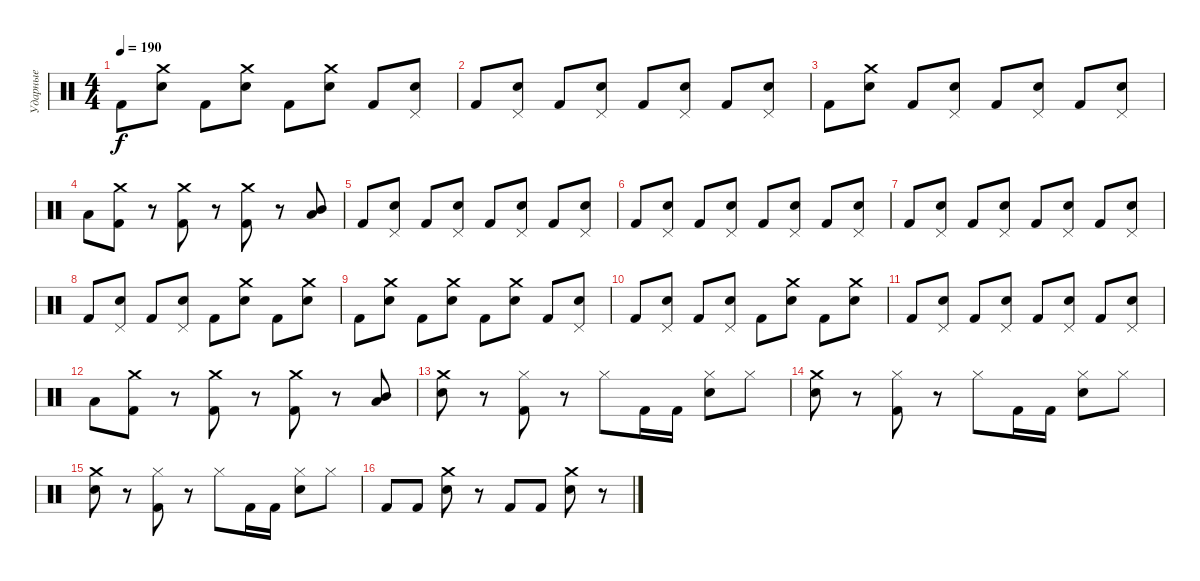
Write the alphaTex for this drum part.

\track ("Ударные" "Ударные") {instrument percussion}
\staff {score}
\articulation defaults
\ts (4 4)
\tempo 190
\clef neutral
\ks c "Kick (hit) 2".8{dy f}
("Snare (hit) 2" "Crash medium (hit)").8 "Kick (hit) 2".8 ("Snare (hit) 2" "Crash medium (hit)").8 "Kick (hit) 2".8 ("Snare (hit) 2" "Crash medium (hit)").8 "Kick (hit) 2".8 ("Snare (hit) 2" "Pedal Hi-Hat (hit)").8 |
"Kick (hit) 2".8 ("Snare (hit) 2" "Pedal Hi-Hat (hit)").8 "Kick (hit) 2".8 ("Snare (hit) 2" "Pedal Hi-Hat (hit)").8 "Kick (hit) 2".8 ("Snare (hit) 2" "Pedal Hi-Hat (hit)").8 "Kick (hit) 2".8 ("Snare (hit) 2" "Pedal Hi-Hat (hit)").8 |
"Kick (hit) 2".8 ("Snare (hit) 2" "Crash medium (hit)").8 "Kick (hit) 2".8 ("Snare (hit) 2" "Pedal Hi-Hat (hit)").8 "Kick (hit) 2".8 ("Snare (hit) 2" "Pedal Hi-Hat (hit)").8 "Kick (hit) 2".8 ("Snare (hit) 2" "Pedal Hi-Hat (hit)").8 |
"Low Tom (hit)".8 ("Kick (hit) 2" "Crash medium (hit)").8 r.8 ("Kick (hit) 2" "Crash medium (hit)").8 r.8 ("Kick (hit) 2" "Crash medium (hit)").8 r.8 ("Low Tom (hit)" "Mid Tom (hit)").8{bd 120} |
"Kick (hit) 2".8 ("Snare (hit) 2" "Pedal Hi-Hat (hit)").8 "Kick (hit) 2".8 ("Snare (hit) 2" "Pedal Hi-Hat (hit)").8 "Kick (hit) 2".8 ("Snare (hit) 2" "Pedal Hi-Hat (hit)").8 "Kick (hit) 2".8 ("Snare (hit) 2" "Pedal Hi-Hat (hit)").8 |
"Kick (hit) 2".8 ("Snare (hit) 2" "Pedal Hi-Hat (hit)").8 "Kick (hit) 2".8 ("Snare (hit) 2" "Pedal Hi-Hat (hit)").8 "Kick (hit) 2".8 ("Snare (hit) 2" "Pedal Hi-Hat (hit)").8 "Kick (hit) 2".8 ("Snare (hit) 2" "Pedal Hi-Hat (hit)").8 |
"Kick (hit) 2".8 ("Snare (hit) 2" "Pedal Hi-Hat (hit)").8 "Kick (hit) 2".8 ("Snare (hit) 2" "Pedal Hi-Hat (hit)").8 "Kick (hit) 2".8 ("Snare (hit) 2" "Pedal Hi-Hat (hit)").8 "Kick (hit) 2".8 ("Snare (hit) 2" "Pedal Hi-Hat (hit)").8 |
"Kick (hit) 2".8 ("Snare (hit) 2" "Pedal Hi-Hat (hit)").8 "Kick (hit) 2".8 ("Snare (hit) 2" "Pedal Hi-Hat (hit)").8 "Kick (hit) 2".8 ("Snare (hit) 2" "Crash medium (hit)").8 "Kick (hit) 2".8 ("Snare (hit) 2" "Crash medium (hit)").8 |
"Kick (hit) 2".8 ("Snare (hit) 2" "Crash medium (hit)").8 "Kick (hit) 2".8 ("Snare (hit) 2" "Crash medium (hit)").8 "Kick (hit) 2".8 ("Snare (hit) 2" "Crash medium (hit)").8 "Kick (hit) 2".8 ("Snare (hit) 2" "Pedal Hi-Hat (hit)").8 |
"Kick (hit) 2".8 ("Snare (hit) 2" "Pedal Hi-Hat (hit)").8 "Kick (hit) 2".8 ("Snare (hit) 2" "Pedal Hi-Hat (hit)").8 "Kick (hit) 2".8 ("Snare (hit) 2" "Crash medium (hit)").8 "Kick (hit) 2".8 ("Snare (hit) 2" "Crash medium (hit)").8 |
"Kick (hit) 2".8 ("Snare (hit) 2" "Pedal Hi-Hat (hit)").8 "Kick (hit) 2".8 ("Snare (hit) 2" "Pedal Hi-Hat (hit)").8 "Kick (hit) 2".8 ("Snare (hit) 2" "Pedal Hi-Hat (hit)").8 "Kick (hit) 2".8 ("Snare (hit) 2" "Pedal Hi-Hat (hit)").8 |
"Low Tom (hit)".8 ("Kick (hit) 2" "Crash medium (hit)").8 r.8 ("Kick (hit) 2" "Crash medium (hit)").8 r.8 ("Kick (hit) 2" "Crash medium (hit)").8 r.8 ("Low Tom (hit)" "Mid Tom (hit)").8{bd 120} |
("Snare (hit) 2" "Crash medium (hit)").8 r.8 ("Kick (hit) 2" "Hi-Hat (closed)").8 r.8 "Hi-Hat (closed)".8 "Kick (hit) 2".16 "Kick (hit) 2".16 ("Snare (hit) 2" "Hi-Hat (closed)").8 "Hi-Hat (closed)".8 |
("Snare (hit) 2" "Crash medium (hit)").8 r.8 ("Kick (hit) 2" "Hi-Hat (closed)").8 r.8 "Hi-Hat (closed)".8 "Kick (hit) 2".16 "Kick (hit) 2".16 ("Snare (hit) 2" "Hi-Hat (closed)").8 "Hi-Hat (closed)".8 |
("Snare (hit) 2" "Crash medium (hit)").8 r.8 ("Kick (hit) 2" "Hi-Hat (closed)").8 r.8 "Hi-Hat (closed)".8 "Kick (hit) 2".16 "Kick (hit) 2".16 ("Snare (hit) 2" "Hi-Hat (closed)").8 "Hi-Hat (closed)".8 |
"Kick (hit) 2".8 "Kick (hit) 2".8 ("Snare (hit) 2" "Crash medium (hit)").8 r.8 "Kick (hit) 2".8 "Kick (hit) 2".8 ("Snare (hit) 2" "Crash medium (hit)").8 r.8
